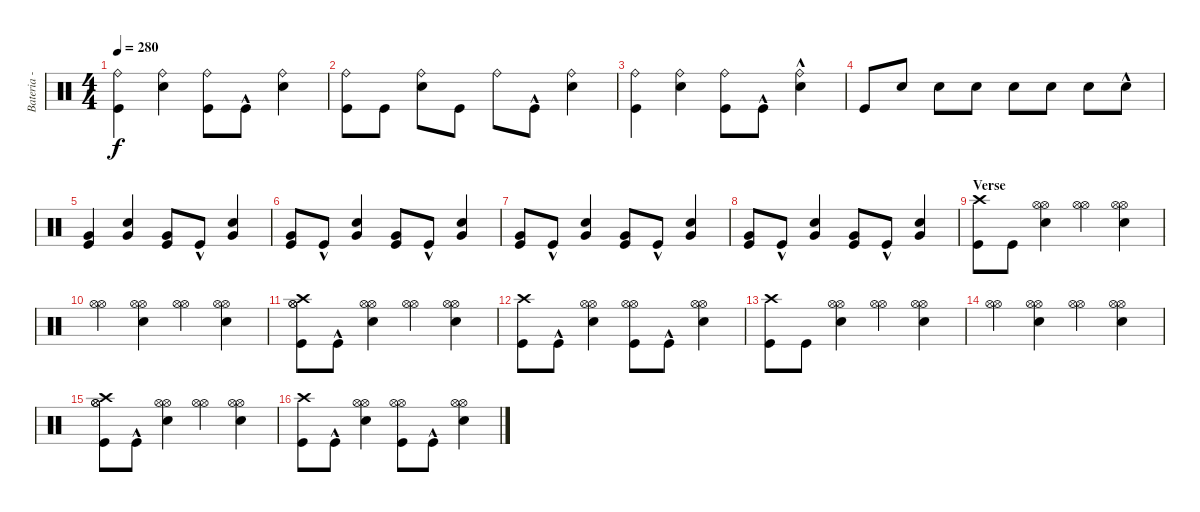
\track ("Bateria - Larzon" "Bateria - ") {instrument percussion}
\staff {score}
\articulation defaults
\ts (4 4)
\tempo 280
\clef neutral
\ks c
("Kick (hit)" "Ride (bell)").4{dy f} ("Snare (hit) 2" "Ride (bell)").4 ("Kick (hit)" "Ride (bell)").8 "Kick (hit)"{hac}.8 ("Snare (hit) 2" "Ride (bell)").4 |
("Kick (hit)" "Ride (bell)").8 "Kick (hit)".8 ("Snare (hit) 2" "Ride (bell)").8 "Kick (hit)".8 "Ride (bell)".8 "Kick (hit)"{hac}.8 ("Snare (hit) 2" "Ride (bell)").4 |
("Kick (hit)" "Ride (bell)").4 ("Snare (hit) 2" "Ride (bell)").4 ("Kick (hit)" "Ride (bell)").8 "Kick (hit)"{hac}.8 ("Snare (hit) 2"{hac} "Ride (bell)").4 |
"Kick (hit)".8 "Snare (hit) 2".8 "Snare (hit) 2".8 "Snare (hit) 2".8 "Snare (hit) 2".8 "Snare (hit) 2".8 "Snare (hit) 2".8 "Snare (hit) 2"{hac}.8 |
("Kick (hit)" "Very Low Tom (hit)").4 ("Snare (hit) 2" "Very Low Tom (hit)").4 ("Kick (hit)" "Very Low Tom (hit)").8 "Kick (hit)"{hac}.8 ("Snare (hit) 2" "Very Low Tom (hit)").4 |
("Kick (hit)" "Very Low Tom (hit)").8 "Kick (hit)"{hac}.8 ("Snare (hit) 2" "Very Low Tom (hit)").4 ("Kick (hit)" "Very Low Tom (hit)").8 "Kick (hit)"{hac}.8 ("Snare (hit) 2" "Very Low Tom (hit)").4 |
("Kick (hit)" "Very Low Tom (hit)").8 "Kick (hit)"{hac}.8 ("Snare (hit) 2" "Very Low Tom (hit)").4 ("Kick (hit)" "Very Low Tom (hit)").8 "Kick (hit)"{hac}.8 ("Snare (hit) 2" "Very Low Tom (hit)").4 |
("Kick (hit)" "Very Low Tom (hit)").8 "Kick (hit)"{hac}.8 ("Snare (hit) 2" "Very Low Tom (hit)").4 ("Kick (hit)" "Very Low Tom (hit)").8 "Kick (hit)"{hac}.8 ("Snare (hit) 2" "Very Low Tom (hit)").4 |
\section ("" "Verse")
("Kick (hit)" "Crash high (hit)").8 "Kick (hit)".8 ("Snare (hit) 2" "Hi-Hat (open)" "Hi-Hat (open)").4 ("Hi-Hat (open)" "Hi-Hat (open)").4 ("Snare (hit) 2" "Hi-Hat (open)" "Hi-Hat (open)").4 |
("Hi-Hat (open)" "Hi-Hat (open)").4 ("Snare (hit) 2" "Hi-Hat (open)" "Hi-Hat (open)").4 ("Hi-Hat (open)" "Hi-Hat (open)").4 ("Snare (hit) 2" "Hi-Hat (open)" "Hi-Hat (open)").4 |
("Kick (hit)" "Hi-Hat (open)" "Hi-Hat (open)" "Crash high (hit)").8 "Kick (hit)"{hac}.8 ("Snare (hit) 2" "Hi-Hat (open)" "Hi-Hat (open)").4 ("Hi-Hat (open)" "Hi-Hat (open)").4 ("Snare (hit) 2" "Hi-Hat (open)" "Hi-Hat (open)").4 |
("Kick (hit)" "Crash high (hit)").8 "Kick (hit)"{hac}.8 ("Snare (hit) 2" "Hi-Hat (open)" "Hi-Hat (open)").4 ("Kick (hit)" "Hi-Hat (open)" "Hi-Hat (open)").8 "Kick (hit)"{hac}.8 ("Snare (hit) 2" "Hi-Hat (open)" "Hi-Hat (open)").4 |
("Kick (hit)" "Crash high (hit)").8 "Kick (hit)".8 ("Snare (hit) 2" "Hi-Hat (open)" "Hi-Hat (open)").4 ("Hi-Hat (open)" "Hi-Hat (open)").4 ("Snare (hit) 2" "Hi-Hat (open)" "Hi-Hat (open)").4 |
("Hi-Hat (open)" "Hi-Hat (open)").4 ("Snare (hit) 2" "Hi-Hat (open)" "Hi-Hat (open)").4 ("Hi-Hat (open)" "Hi-Hat (open)").4 ("Snare (hit) 2" "Hi-Hat (open)" "Hi-Hat (open)").4 |
("Kick (hit)" "Hi-Hat (open)" "Hi-Hat (open)" "Crash high (hit)").8 "Kick (hit)"{hac}.8 ("Snare (hit) 2" "Hi-Hat (open)" "Hi-Hat (open)").4 ("Hi-Hat (open)" "Hi-Hat (open)").4 ("Snare (hit) 2" "Hi-Hat (open)" "Hi-Hat (open)").4 |
("Kick (hit)" "Crash high (hit)").8 "Kick (hit)"{hac}.8 ("Snare (hit) 2" "Hi-Hat (open)" "Hi-Hat (open)").4 ("Kick (hit)" "Hi-Hat (open)" "Hi-Hat (open)").8 "Kick (hit)"{hac}.8 ("Snare (hit) 2" "Hi-Hat (open)" "Hi-Hat (open)").4
